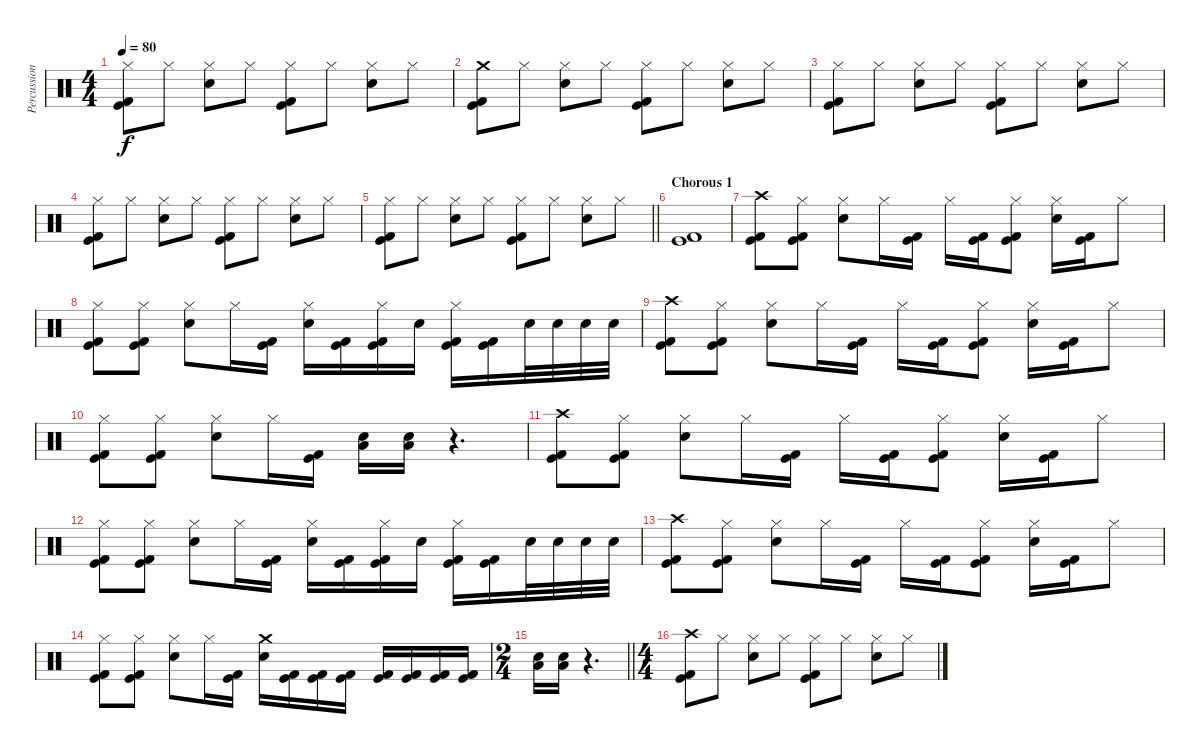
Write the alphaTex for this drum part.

\track ("Percussion" "Percussion") {instrument percussion}
\staff {score}
\articulation defaults
\ts (4 4)
\tempo 80
\clef neutral
\ks c
("Hi-Hat (closed)" "Kick (hit)" "Kick (hit) 2").8{dy f} "Hi-Hat (closed)".8 ("Hi-Hat (closed)" "Electric Snare (hit)").8 "Hi-Hat (closed)".8 ("Hi-Hat (closed)" "Kick (hit)" "Kick (hit) 2").8 "Hi-Hat (closed)".8 ("Hi-Hat (closed)" "Electric Snare (hit)").8 "Hi-Hat (closed)".8 |
("Crash medium (hit)" "Kick (hit)" "Kick (hit) 2").8 "Hi-Hat (closed)".8 ("Hi-Hat (closed)" "Electric Snare (hit)").8 "Hi-Hat (closed)".8 ("Hi-Hat (closed)" "Kick (hit)" "Kick (hit) 2").8 "Hi-Hat (closed)".8 ("Hi-Hat (closed)" "Electric Snare (hit)").8 "Hi-Hat (closed)".8 |
("Hi-Hat (closed)" "Kick (hit)" "Kick (hit) 2").8 "Hi-Hat (closed)".8 ("Hi-Hat (closed)" "Electric Snare (hit)").8 "Hi-Hat (closed)".8 ("Hi-Hat (closed)" "Kick (hit)" "Kick (hit) 2").8 "Hi-Hat (closed)".8 ("Hi-Hat (closed)" "Electric Snare (hit)").8 "Hi-Hat (closed)".8 |
("Hi-Hat (closed)" "Kick (hit)" "Kick (hit) 2").8 "Hi-Hat (closed)".8 ("Hi-Hat (closed)" "Electric Snare (hit)").8 "Hi-Hat (closed)".8 ("Hi-Hat (closed)" "Kick (hit)" "Kick (hit) 2").8 "Hi-Hat (closed)".8 ("Hi-Hat (closed)" "Electric Snare (hit)").8 "Hi-Hat (closed)".8 |
\barLineRight lightlight
("Hi-Hat (closed)" "Kick (hit)" "Kick (hit) 2").8 "Hi-Hat (closed)".8 ("Hi-Hat (closed)" "Electric Snare (hit)").8 "Hi-Hat (closed)".8 ("Hi-Hat (closed)" "Kick (hit)" "Kick (hit) 2").8 "Hi-Hat (closed)".8 ("Hi-Hat (closed)" "Electric Snare (hit)").8 "Hi-Hat (closed)".8 |
\section ("" "Chorous 1")
("Kick (hit)" "Kick (hit) 2").1 |
("Crash high (hit)" "Kick (hit)" "Kick (hit) 2").8 ("Hi-Hat (closed)" "Kick (hit)" "Kick (hit) 2").8 ("Hi-Hat (closed)" "Electric Snare (hit)").8 "Hi-Hat (closed)".16 ("Kick (hit)" "Kick (hit) 2").16 "Hi-Hat (closed)".16 ("Kick (hit)" "Kick (hit) 2").16 ("Hi-Hat (closed)" "Kick (hit)" "Kick (hit) 2").8 ("Hi-Hat (closed)" "Electric Snare (hit)").16 ("Kick (hit)" "Kick (hit) 2").16 "Hi-Hat (closed)".8 |
("Hi-Hat (closed)" "Kick (hit)" "Kick (hit) 2").8 ("Hi-Hat (closed)" "Kick (hit)" "Kick (hit) 2").8 ("Hi-Hat (closed)" "Electric Snare (hit)").8 "Hi-Hat (closed)".16 ("Kick (hit)" "Kick (hit) 2").16 ("Hi-Hat (closed)" "Electric Snare (hit)").16 ("Kick (hit)" "Kick (hit) 2").16 ("Hi-Hat (closed)" "Kick (hit)" "Kick (hit) 2").16 "Electric Snare (hit)".16 ("Hi-Hat (closed)" "Kick (hit)" "Kick (hit) 2").16 ("Kick (hit)" "Kick (hit) 2").16 "Electric Snare (hit)".32 "Electric Snare (hit)".32 "Electric Snare (hit)".32 "Electric Snare (hit)".32 |
("Crash high (hit)" "Kick (hit)" "Kick (hit) 2").8 ("Hi-Hat (closed)" "Kick (hit)" "Kick (hit) 2").8 ("Hi-Hat (closed)" "Electric Snare (hit)").8 "Hi-Hat (closed)".16 ("Kick (hit)" "Kick (hit) 2").16 "Hi-Hat (closed)".16 ("Kick (hit)" "Kick (hit) 2").16 ("Hi-Hat (closed)" "Kick (hit)" "Kick (hit) 2").8 ("Hi-Hat (closed)" "Electric Snare (hit)").16 ("Kick (hit)" "Kick (hit) 2").16 "Hi-Hat (closed)".8 |
("Hi-Hat (closed)" "Kick (hit)" "Kick (hit) 2").8 ("Hi-Hat (closed)" "Kick (hit)" "Kick (hit) 2").8 ("Hi-Hat (closed)" "Electric Snare (hit)").8 "Hi-Hat (closed)".16 ("Kick (hit)" "Kick (hit) 2").16 ("Electric Snare (hit)" "Low Floor Tom (hit)").16 ("Electric Snare (hit)" "Low Floor Tom (hit)").16 r.4{d} |
("Crash high (hit)" "Kick (hit)" "Kick (hit) 2").8 ("Hi-Hat (closed)" "Kick (hit)" "Kick (hit) 2").8 ("Hi-Hat (closed)" "Electric Snare (hit)").8 "Hi-Hat (closed)".16 ("Kick (hit)" "Kick (hit) 2").16 "Hi-Hat (closed)".16 ("Kick (hit)" "Kick (hit) 2").16 ("Hi-Hat (closed)" "Kick (hit)" "Kick (hit) 2").8 ("Hi-Hat (closed)" "Electric Snare (hit)").16 ("Kick (hit)" "Kick (hit) 2").16 "Hi-Hat (closed)".8 |
("Hi-Hat (closed)" "Kick (hit)" "Kick (hit) 2").8 ("Hi-Hat (closed)" "Kick (hit)" "Kick (hit) 2").8 ("Hi-Hat (closed)" "Electric Snare (hit)").8 "Hi-Hat (closed)".16 ("Kick (hit)" "Kick (hit) 2").16 ("Hi-Hat (closed)" "Electric Snare (hit)").16 ("Kick (hit)" "Kick (hit) 2").16 ("Hi-Hat (closed)" "Kick (hit)" "Kick (hit) 2").16 "Electric Snare (hit)".16 ("Hi-Hat (closed)" "Kick (hit)" "Kick (hit) 2").16 ("Kick (hit)" "Kick (hit) 2").16 "Electric Snare (hit)".32 "Electric Snare (hit)".32 "Electric Snare (hit)".32 "Electric Snare (hit)".32 |
("Crash high (hit)" "Kick (hit)" "Kick (hit) 2").8 ("Hi-Hat (closed)" "Kick (hit)" "Kick (hit) 2").8 ("Hi-Hat (closed)" "Electric Snare (hit)").8 "Hi-Hat (closed)".16 ("Kick (hit)" "Kick (hit) 2").16 "Hi-Hat (closed)".16 ("Kick (hit)" "Kick (hit) 2").16 ("Hi-Hat (closed)" "Kick (hit)" "Kick (hit) 2").8 ("Hi-Hat (closed)" "Electric Snare (hit)").16 ("Kick (hit)" "Kick (hit) 2").16 "Hi-Hat (closed)".8 |
("Hi-Hat (closed)" "Kick (hit)" "Kick (hit) 2").8 ("Hi-Hat (closed)" "Kick (hit)" "Kick (hit) 2").8 ("Hi-Hat (closed)" "Electric Snare (hit)").8 "Hi-Hat (closed)".16 ("Kick (hit)" "Kick (hit) 2").16 ("Crash medium (hit)" "Electric Snare (hit)").16 ("Kick (hit)" "Kick (hit) 2").16 ("Kick (hit)" "Kick (hit) 2").16 ("Kick (hit)" "Kick (hit) 2").16 ("Kick (hit)" "Kick (hit) 2").16 ("Kick (hit)" "Kick (hit) 2").16 ("Kick (hit)" "Kick (hit) 2").16 ("Kick (hit)" "Kick (hit) 2").16 |
\ts (2 4)
\barLineRight lightlight
("Electric Snare (hit)" "Low Floor Tom (hit)").16 ("Electric Snare (hit)" "Low Floor Tom (hit)").16 r.4{d} |
\ts (4 4)
\section ("" "")
("Crash high (hit)" "Kick (hit)" "Kick (hit) 2").8 "Hi-Hat (closed)".8 ("Hi-Hat (closed)" "Electric Snare (hit)").8 "Hi-Hat (closed)".8 ("Hi-Hat (closed)" "Kick (hit)" "Kick (hit) 2").8 "Hi-Hat (closed)".8 ("Hi-Hat (closed)" "Electric Snare (hit)").8 "Hi-Hat (closed)".8
